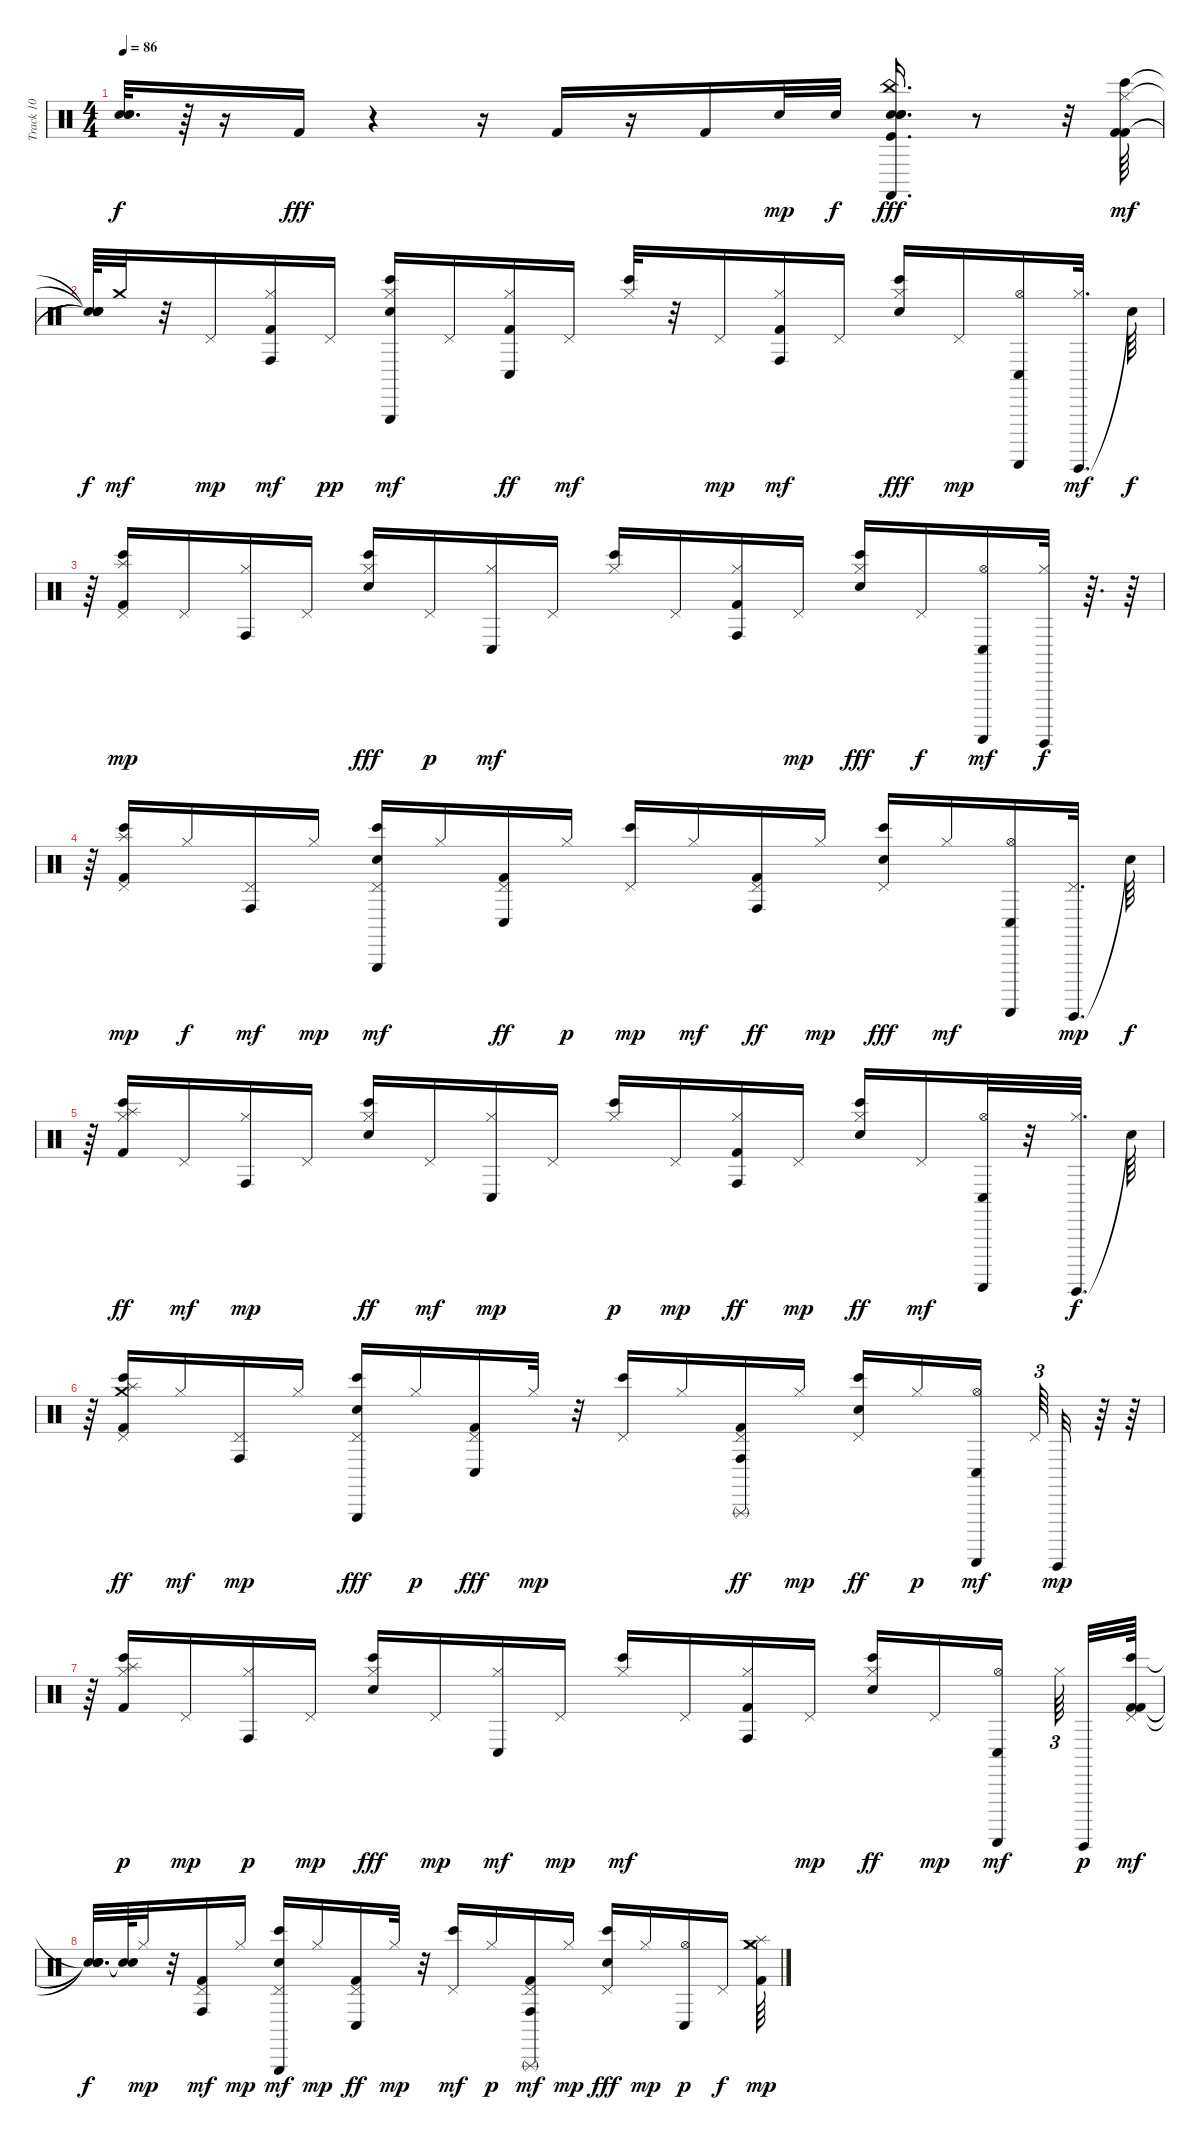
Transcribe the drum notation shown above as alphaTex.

\track ("Track 10" "Track 10") {instrument percussion}
\staff {score}
\articulation defaults
\ts (4 4)
\tempo 86
\clef neutral
\ks c
("Snare (hit)"{t} "Snare (hit)"{t} "Snare (hit)"{t}).32{d dy f} r.64 r.16 "Kick (hit) 2".16{dy fff} r.4 r.16 "Kick (hit) 2".16 r.16 "Kick (hit) 2".16 "Electric Snare (hit)".32{dy mp} "Electric Snare (hit)".32{dy f} ("China (hit)" "Castanets (hit)" "Snare (hit)" "Hand Clap (hit)" "Kick (hit)" "Electric Snare (hit)").16{d dy fff} r.8 r.32 ("Hi-Hat (closed)" "Bongo High (hit)" "Kick (hit) 2" "Kick (hit) 2").64{dy mf} |
("Snare (hit)"{t} "Snare (hit)"{t} "Snare (hit)"{t} "Snare (hit)"{t}).64{dy f} "Crash medium (hit)".32{dy mf} r.32 "Pedal Hi-Hat (hit)".16{dy mp} ("Hi-Hat (closed)" "Conga high (hit)" "Kick (hit) 2").16{dy mf} "Pedal Hi-Hat (hit)".16{dy pp} ("Hi-Hat (closed)" "Electric Snare (hit)" "Bongo High (hit)" "Triangle (hit)").16{dy mf} "Pedal Hi-Hat (hit)".16 ("Hi-Hat (closed)" "Conga low (hit)" "Kick (hit) 2").16{dy ff} "Pedal Hi-Hat (hit)".16{dy mf} ("Hi-Hat (closed)" "Bongo High (hit)").32 r.32 "Pedal Hi-Hat (hit)".16{dy mp} ("Hi-Hat (closed)" "Conga high (hit)" "Kick (hit) 2").16{dy mf} "Pedal Hi-Hat (hit)".16 ("Hi-Hat (closed)" "Electric Snare (hit)" "Bongo High (hit)").16{dy fff} "Pedal Hi-Hat (hit)".16{dy mp} ("Hi-Hat (open)" "Conga low (hit)" "Guiro (scrap-return)").16 ("Guiro (hit)" "Hi-Hat (closed)").32{d dy mf} "Snare (hit)"{t}.64{dy f} |
r.64 ("Pedal Hi-Hat (hit)" "Bongo High (hit)" "Kick (hit) 2" "Splash (hit)").16{dy mp} "Pedal Hi-Hat (hit)".16 ("Hi-Hat (closed)" "Conga high (hit)").16 "Pedal Hi-Hat (hit)".16 ("Hi-Hat (closed)" "Electric Snare (hit)" "Bongo High (hit)").16{dy fff} "Pedal Hi-Hat (hit)".16{dy p} ("Hi-Hat (closed)" "Conga low (hit)").16{dy mf} "Pedal Hi-Hat (hit)".16 ("Hi-Hat (closed)" "Bongo High (hit)").16 "Pedal Hi-Hat (hit)".16 ("Hi-Hat (closed)" "Conga high (hit)" "Kick (hit) 2").16 "Pedal Hi-Hat (hit)".16{dy mp} ("Hi-Hat (closed)" "Electric Snare (hit)" "Bongo High (hit)").16{dy fff} "Pedal Hi-Hat (hit)".16{dy f} ("Hi-Hat (open)" "Conga low (hit)" "Guiro (scrap-return)").16{dy mf} ("Hi-Hat (closed)" "Guiro (hit)").32{dy f} r.64{d} r.64 |
r.64 ("Pedal Hi-Hat (hit)" "Bongo High (hit)" "Kick (hit) 2" "Splash (hit)").16{dy mp} "Hi-Hat (closed)".16{dy f} ("Pedal Hi-Hat (hit)" "Conga high (hit)").16{dy mf} "Hi-Hat (closed)".16{dy mp} ("Pedal Hi-Hat (hit)" "Triangle (hit)" "Electric Snare (hit)" "Bongo High (hit)").16{dy mf} "Hi-Hat (closed)".16 ("Pedal Hi-Hat (hit)" "Conga low (hit)" "Kick (hit) 2").16{dy ff} "Hi-Hat (closed)".16{dy p} ("Pedal Hi-Hat (hit)" "Bongo High (hit)").16{dy mp} "Hi-Hat (closed)".16{dy mf} ("Pedal Hi-Hat (hit)" "Conga high (hit)" "Kick (hit) 2").16{dy ff} "Hi-Hat (closed)".16{dy mp} ("Pedal Hi-Hat (hit)" "Electric Snare (hit)" "Bongo High (hit)").16{dy fff} "Hi-Hat (closed)".16{dy mf} ("Hi-Hat (open)" "Guiro (scrap-return)" "Conga low (hit)").16 ("Guiro (hit)" "Pedal Hi-Hat (hit)").32{d dy mp} "Snare (hit)"{t}.64{dy f} |
r.64 ("Hi-Hat (closed)" "Splash (hit)" "Bongo High (hit)" "Kick (hit) 2").16{dy ff} "Pedal Hi-Hat (hit)".16{dy mf} ("Hi-Hat (closed)" "Conga high (hit)").16{dy mp} "Pedal Hi-Hat (hit)".16 ("Hi-Hat (closed)" "Electric Snare (hit)" "Bongo High (hit)").16{dy ff} "Pedal Hi-Hat (hit)".16{dy mf} ("Hi-Hat (closed)" "Conga low (hit)").16{dy mp} "Pedal Hi-Hat (hit)".16 ("Hi-Hat (closed)" "Bongo High (hit)").16{dy p} "Pedal Hi-Hat (hit)".16{dy mp} ("Hi-Hat (closed)" "Conga high (hit)" "Kick (hit) 2").16{dy ff} "Pedal Hi-Hat (hit)".16{dy mp} ("Hi-Hat (closed)" "Electric Snare (hit)" "Bongo High (hit)").16{dy ff} "Pedal Hi-Hat (hit)".16{dy mf} ("Guiro (scrap-return)" "Hi-Hat (open)" "Conga low (hit)").32 r.32 ("Guiro (hit)" "Hi-Hat (closed)").32{d dy f} "Snare (hit)"{t}.64 |
r.64 ("Splash (hit)" "Crash medium (hit)" "Pedal Hi-Hat (hit)" "Bongo High (hit)" "Kick (hit) 2").16{dy ff} "Hi-Hat (closed)".16{dy mf} ("Pedal Hi-Hat (hit)" "Conga high (hit)").16{dy mp} "Hi-Hat (closed)".16 ("Pedal Hi-Hat (hit)" "Triangle (hit)" "Bongo High (hit)" "Electric Snare (hit)").16{dy fff} "Hi-Hat (closed)".16{dy p} ("Pedal Hi-Hat (hit)" "Conga low (hit)" "Kick (hit) 2").16{dy fff} "Hi-Hat (closed)".32{dy mp} r.32 ("Pedal Hi-Hat (hit)" "Bongo High (hit)").16 "Hi-Hat (closed)".16 ("Pedal Hi-Hat (hit)" "Triangle (rnute)" "Conga high (hit)" "Kick (hit) 2").16{dy ff} "Hi-Hat (closed)".16{dy mp} ("Pedal Hi-Hat (hit)" "Bongo High (hit)" "Electric Snare (hit)").16{dy ff} "Hi-Hat (closed)".16{dy p} ("Hi-Hat (open)" "Conga low (hit)" "Guiro (scrap-return)").16{dy mf beam splitsecondary} "Pedal Hi-Hat (hit)".64{tu (3 2)} "Guiro (hit)".32{dy mp} r.64 r.64 |
r.64 ("Hi-Hat (closed)" "Bongo High (hit)" "Kick (hit) 2" "Splash (hit)").16{dy p} "Pedal Hi-Hat (hit)".16{dy mp} ("Hi-Hat (closed)" "Conga high (hit)").16{dy p} "Pedal Hi-Hat (hit)".16{dy mp} ("Hi-Hat (closed)" "Bongo High (hit)" "Electric Snare (hit)").16{dy fff} "Pedal Hi-Hat (hit)".16{dy mp} ("Hi-Hat (closed)" "Conga low (hit)").16{dy mf} "Pedal Hi-Hat (hit)".16{dy mp} ("Hi-Hat (closed)" "Bongo High (hit)").16{dy mf} "Pedal Hi-Hat (hit)".16 ("Hi-Hat (closed)" "Conga high (hit)" "Kick (hit) 2").16 "Pedal Hi-Hat (hit)".16{dy mp} ("Hi-Hat (closed)" "Electric Snare (hit)" "Bongo High (hit)").16{dy ff} "Pedal Hi-Hat (hit)".16{dy mp} ("Hi-Hat (open)" "Conga low (hit)" "Guiro (scrap-return)").16{dy mf beam splitsecondary} "Hi-Hat (closed)".64{tu (3 2) beam splitsecondary} "Guiro (hit)".32{dy p} ("Pedal Hi-Hat (hit)" "Bongo High (hit)" "Kick (hit) 2" "Kick (hit) 2").64{dy mf} |
("Snare (hit)"{t} "Snare (hit)"{t} "Snare (hit)"{t} "Snare (hit)"{t}).32{d dy f} ("Snare (hit)"{t} "Snare (hit)"{t}).64 "Hi-Hat (closed)".32{dy mp} r.32 ("Pedal Hi-Hat (hit)" "Conga high (hit)" "Kick (hit) 2").16{dy mf} "Hi-Hat (closed)".16{dy mp} ("Pedal Hi-Hat (hit)" "Triangle (hit)" "Electric Snare (hit)" "Bongo High (hit)").16{dy mf} "Hi-Hat (closed)".16{dy mp} ("Pedal Hi-Hat (hit)" "Conga low (hit)" "Kick (hit) 2").16{dy ff} "Hi-Hat (closed)".32{dy mp} r.32 ("Pedal Hi-Hat (hit)" "Bongo High (hit)").16{dy mf} "Hi-Hat (closed)".16{dy p} ("Pedal Hi-Hat (hit)" "Conga high (hit)" "Triangle (rnute)" "Kick (hit) 2").16{dy mf} "Hi-Hat (closed)".16{dy mp} ("Pedal Hi-Hat (hit)" "Electric Snare (hit)" "Bongo High (hit)").16{dy fff} "Hi-Hat (closed)".16{dy mp} ("Hi-Hat (open)" "Conga low (hit)").16{dy p} "Pedal Hi-Hat (hit)".16{dy f} ("Hi-Hat (closed)" "Splash (hit)" "Kick (hit) 2" "Crash medium (hit)").64{dy mp}
